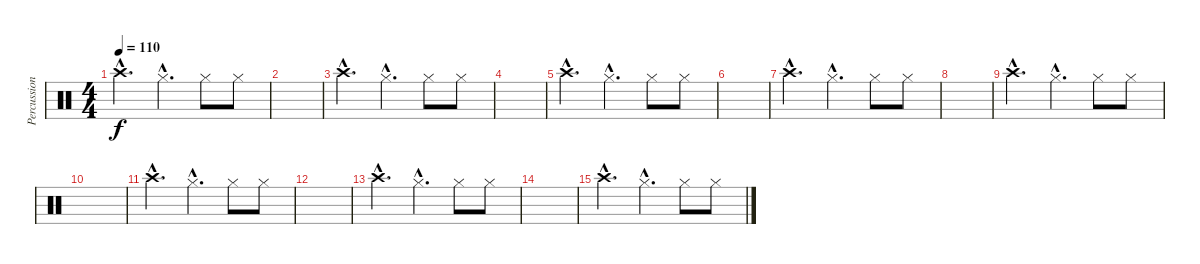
\track ("Percussion 1" "Percussion") {instrument percussion}
\staff {score}
\articulation defaults
\ts (4 4)
\tempo 110
\clef neutral
\ks c "Crash high (hit)"{hac}.4{d dy f} "Hi-Hat (closed)"{hac}.4{d} "Hi-Hat (closed)".8 "Hi-Hat (closed)".8
|
|
"Crash high (hit)"{hac}.4{d} "Hi-Hat (closed)"{hac}.4{d} "Hi-Hat (closed)".8 "Hi-Hat (closed)".8 |
|
"Crash high (hit)"{hac}.4{d} "Hi-Hat (closed)"{hac}.4{d} "Hi-Hat (closed)".8 "Hi-Hat (closed)".8 |
|
"Crash high (hit)"{hac}.4{d} "Hi-Hat (closed)"{hac}.4{d} "Hi-Hat (closed)".8 "Hi-Hat (closed)".8 |
|
"Crash high (hit)"{hac}.4{d} "Hi-Hat (closed)"{hac}.4{d} "Hi-Hat (closed)".8 "Hi-Hat (closed)".8 |
|
"Crash high (hit)"{hac}.4{d} "Hi-Hat (closed)"{hac}.4{d} "Hi-Hat (closed)".8 "Hi-Hat (closed)".8 |
|
"Crash high (hit)"{hac}.4{d} "Hi-Hat (closed)"{hac}.4{d} "Hi-Hat (closed)".8 "Hi-Hat (closed)".8 |
|
"Crash high (hit)"{hac}.4{d} "Hi-Hat (closed)"{hac}.4{d} "Hi-Hat (closed)".8 "Hi-Hat (closed)".8
